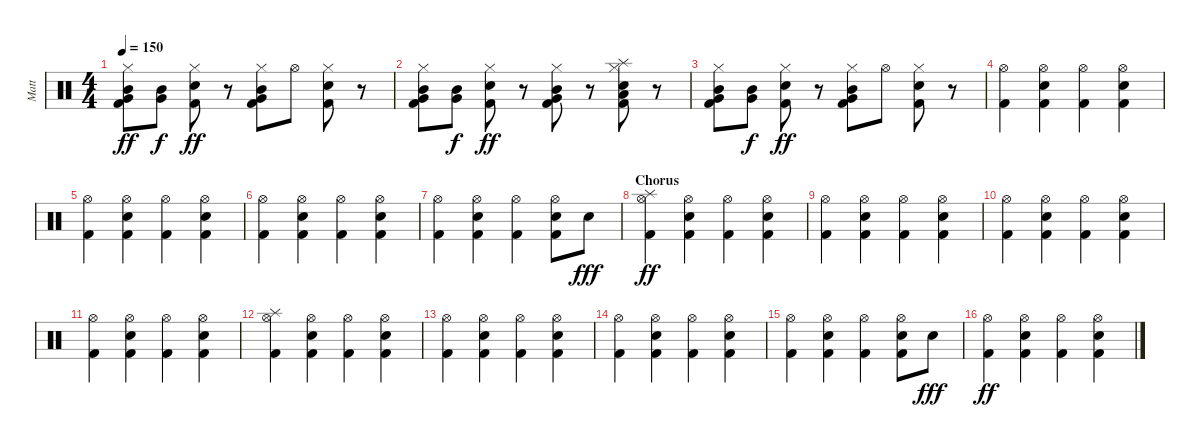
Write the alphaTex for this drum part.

\track ("Matt" "Matt") {instrument percussion}
\staff {score}
\articulation defaults
\ts (4 4)
\tempo 150
\clef neutral
\ks c
("Hi-Hat (closed)" "Mid Tom (hit)" "Very Low Tom (hit)" "Kick (hit) 2").8{dy ff} ("Mid Tom (hit)" "Very Low Tom (hit)").8{dy f} ("Hi-Hat (closed)" "Electric Snare (hit)" "Kick (hit) 2").8{dy ff} r.8 ("Hi-Hat (closed)" "Mid Tom (hit)" "Very Low Tom (hit)" "Kick (hit) 2").8 "Hi-Hat (open)".8 ("Hi-Hat (closed)" "Electric Snare (hit)" "Kick (hit) 2").8 r.8 |
("Hi-Hat (closed)" "Mid Tom (hit)" "Very Low Tom (hit)" "Kick (hit) 2").8 ("Mid Tom (hit)" "Very Low Tom (hit)").8{dy f} ("Hi-Hat (closed)" "Electric Snare (hit)" "Kick (hit) 2").8{dy ff} r.8 ("Hi-Hat (closed)" "Mid Tom (hit)" "Very Low Tom (hit)" "Kick (hit) 2").8 r.8 ("Low Floor Tom (hit)" "Splash (hit)" "Hi-Hat (closed)" "Electric Snare (hit)" "Kick (hit) 2").8 r.8 |
("Hi-Hat (closed)" "Mid Tom (hit)" "Very Low Tom (hit)" "Kick (hit) 2").8 ("Mid Tom (hit)" "Very Low Tom (hit)").8{dy f} ("Hi-Hat (closed)" "Electric Snare (hit)" "Kick (hit) 2").8{dy ff} r.8 ("Hi-Hat (closed)" "Mid Tom (hit)" "Very Low Tom (hit)" "Kick (hit) 2").8 "Hi-Hat (open)".8 ("Hi-Hat (closed)" "Electric Snare (hit)" "Kick (hit) 2").8 r.8 |
("Hi-Hat (open)" "Kick (hit) 2").4 ("Hi-Hat (open)" "Electric Snare (hit)" "Kick (hit) 2").4 ("Hi-Hat (open)" "Kick (hit) 2").4 ("Hi-Hat (open)" "Electric Snare (hit)" "Kick (hit) 2").4 |
("Hi-Hat (open)" "Kick (hit) 2").4 ("Hi-Hat (open)" "Electric Snare (hit)" "Kick (hit) 2").4 ("Hi-Hat (open)" "Kick (hit) 2").4 ("Hi-Hat (open)" "Electric Snare (hit)" "Kick (hit) 2").4 |
("Hi-Hat (open)" "Kick (hit) 2").4 ("Hi-Hat (open)" "Electric Snare (hit)" "Kick (hit) 2").4 ("Hi-Hat (open)" "Kick (hit) 2").4 ("Hi-Hat (open)" "Electric Snare (hit)" "Kick (hit) 2").4 |
("Hi-Hat (open)" "Kick (hit) 2").4 ("Hi-Hat (open)" "Electric Snare (hit)" "Kick (hit) 2").4 ("Hi-Hat (open)" "Kick (hit) 2").4 ("Hi-Hat (open)" "Electric Snare (hit)" "Kick (hit) 2").8 "Electric Snare (hit)".8{dy fff} |
\section ("" "Chorus")
("Splash (hit)" "Hi-Hat (open)" "Kick (hit) 2").4{dy ff} ("Hi-Hat (open)" "Electric Snare (hit)" "Kick (hit) 2").4 ("Hi-Hat (open)" "Kick (hit) 2").4 ("Hi-Hat (open)" "Electric Snare (hit)" "Kick (hit) 2").4 |
("Hi-Hat (open)" "Kick (hit) 2").4 ("Hi-Hat (open)" "Electric Snare (hit)" "Kick (hit) 2").4 ("Hi-Hat (open)" "Kick (hit) 2").4 ("Hi-Hat (open)" "Electric Snare (hit)" "Kick (hit) 2").4 |
("Hi-Hat (open)" "Kick (hit) 2").4 ("Hi-Hat (open)" "Electric Snare (hit)" "Kick (hit) 2").4 ("Hi-Hat (open)" "Kick (hit) 2").4 ("Hi-Hat (open)" "Electric Snare (hit)" "Kick (hit) 2").4 |
("Hi-Hat (open)" "Kick (hit) 2").4 ("Hi-Hat (open)" "Electric Snare (hit)" "Kick (hit) 2").4 ("Hi-Hat (open)" "Kick (hit) 2").4 ("Hi-Hat (open)" "Electric Snare (hit)" "Kick (hit) 2").4 |
("Splash (hit)" "Hi-Hat (open)" "Kick (hit) 2").4 ("Hi-Hat (open)" "Electric Snare (hit)" "Kick (hit) 2").4 ("Hi-Hat (open)" "Kick (hit) 2").4 ("Hi-Hat (open)" "Electric Snare (hit)" "Kick (hit) 2").4 |
("Hi-Hat (open)" "Kick (hit) 2").4 ("Hi-Hat (open)" "Electric Snare (hit)" "Kick (hit) 2").4 ("Hi-Hat (open)" "Kick (hit) 2").4 ("Hi-Hat (open)" "Electric Snare (hit)" "Kick (hit) 2").4 |
("Hi-Hat (open)" "Kick (hit) 2").4 ("Hi-Hat (open)" "Electric Snare (hit)" "Kick (hit) 2").4 ("Hi-Hat (open)" "Kick (hit) 2").4 ("Hi-Hat (open)" "Electric Snare (hit)" "Kick (hit) 2").4 |
("Hi-Hat (open)" "Kick (hit) 2").4 ("Hi-Hat (open)" "Electric Snare (hit)" "Kick (hit) 2").4 ("Hi-Hat (open)" "Kick (hit) 2").4 ("Hi-Hat (open)" "Electric Snare (hit)" "Kick (hit) 2").8 "Electric Snare (hit)".8{dy fff} |
("Hi-Hat (open)" "Kick (hit) 2").4{dy ff} ("Hi-Hat (open)" "Electric Snare (hit)" "Kick (hit) 2").4 ("Hi-Hat (open)" "Kick (hit) 2").4 ("Hi-Hat (open)" "Electric Snare (hit)" "Kick (hit) 2").4
